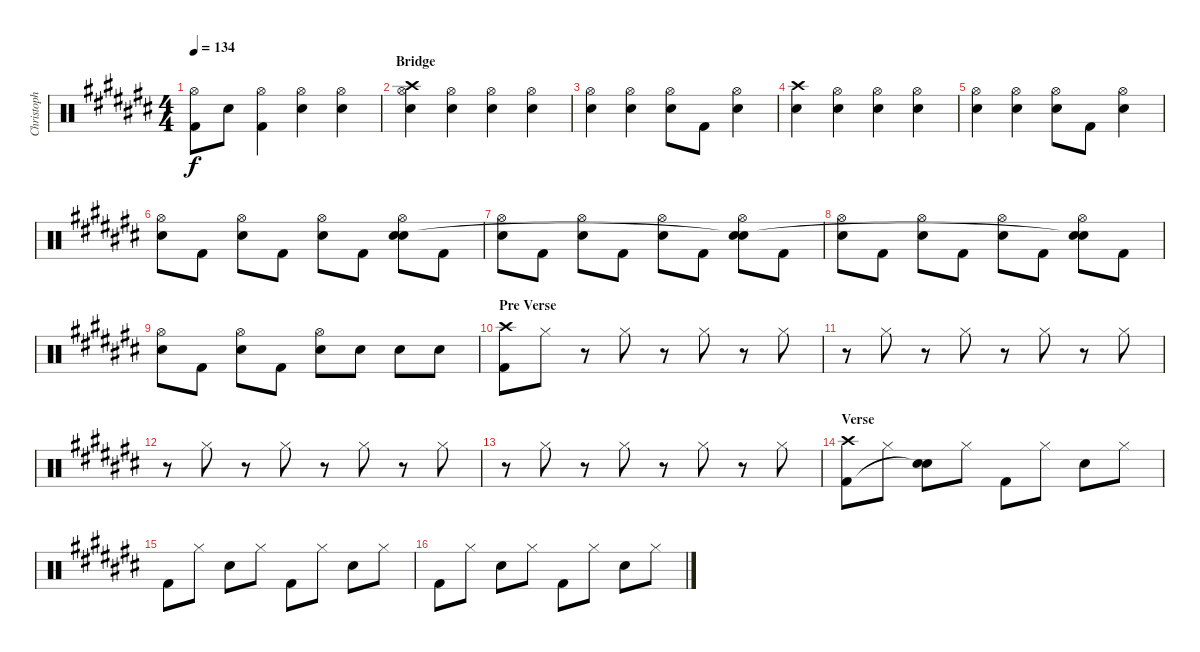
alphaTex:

\track ("Christoph Doom Schneider - Drums" "Christoph ") {instrument percussion}
\staff {score}
\articulation defaults
\ts (4 4)
\tempo 134
\clef neutral
\ks c#
("Hi-Hat (open)" "Kick (hit) 2").8{dy f} "Electric Snare (hit)".8 ("Hi-Hat (open)" "Kick (hit) 2").4 ("Hi-Hat (open)" "Electric Snare (hit)").4 ("Hi-Hat (open)" "Electric Snare (hit)").4 |
\section ("" "Bridge")
("Crash high (hit)" "Hi-Hat (open)" "Electric Snare (hit)").4 ("Hi-Hat (open)" "Electric Snare (hit)").4 ("Hi-Hat (open)" "Electric Snare (hit)").4 ("Hi-Hat (open)" "Electric Snare (hit)").4 |
("Hi-Hat (open)" "Electric Snare (hit)").4 ("Hi-Hat (open)" "Electric Snare (hit)").4 ("Hi-Hat (open)" "Electric Snare (hit)").8 "Kick (hit) 2".8 ("Hi-Hat (open)" "Electric Snare (hit)").4 |
("Crash high (hit)" "Electric Snare (hit)").4 ("Hi-Hat (open)" "Electric Snare (hit)").4 ("Hi-Hat (open)" "Electric Snare (hit)").4 ("Hi-Hat (open)" "Electric Snare (hit)").4 |
("Hi-Hat (open)" "Electric Snare (hit)").4 ("Hi-Hat (open)" "Electric Snare (hit)").4 ("Hi-Hat (open)" "Electric Snare (hit)").8 "Kick (hit) 2"{tr (36 32)}.8 ("Hi-Hat (open)" "Electric Snare (hit)").4 |
("Hi-Hat (open)" "Electric Snare (hit)").8 "Kick (hit) 2".8 ("Hi-Hat (open)" "Electric Snare (hit)").8 "Kick (hit) 2".8 ("Hi-Hat (open)" "Electric Snare (hit)").8 "Kick (hit) 2"{tr (36 16)}.8 ("Hi-Hat (open)" "Electric Snare (hit)" "Snare (hit)").8 "Kick (hit) 2".8 |
("Hi-Hat (open)" "Electric Snare (hit)").8 "Kick (hit) 2".8 ("Hi-Hat (open)" "Electric Snare (hit)").8 "Kick (hit) 2".8 ("Hi-Hat (open)" "Electric Snare (hit)").8 "Kick (hit) 2"{tr (36 16)}.8 ("Hi-Hat (open)" "Electric Snare (hit)" "Snare (hit)"{t}).8 "Kick (hit) 2".8 |
("Hi-Hat (open)" "Electric Snare (hit)").8 "Kick (hit) 2".8 ("Hi-Hat (open)" "Electric Snare (hit)").8 "Kick (hit) 2".8 ("Hi-Hat (open)" "Electric Snare (hit)").8 "Kick (hit) 2"{tr (36 16)}.8 ("Hi-Hat (open)" "Electric Snare (hit)" "Snare (hit)"{t}).8 "Kick (hit) 2".8 |
("Hi-Hat (open)" "Electric Snare (hit)").8 "Kick (hit) 2".8 ("Hi-Hat (open)" "Electric Snare (hit)").8 "Kick (hit) 2".8 ("Hi-Hat (open)" "Electric Snare (hit)").8 "Electric Snare (hit)".8 "Electric Snare (hit)".8 "Electric Snare (hit)".8 |
\section ("" "Pre Verse")
("Crash high (hit)" "Kick (hit) 2").8 "Hi-Hat (closed)".8 r.8 "Hi-Hat (closed)".8 r.8 "Hi-Hat (closed)".8 r.8 "Hi-Hat (closed)".8 |
r.8 "Hi-Hat (closed)".8 r.8 "Hi-Hat (closed)".8 r.8 "Hi-Hat (closed)".8 r.8 "Hi-Hat (closed)".8 |
r.8 "Hi-Hat (closed)".8 r.8 "Hi-Hat (closed)".8 r.8 "Hi-Hat (closed)".8 r.8 "Hi-Hat (closed)".8 |
r.8 "Hi-Hat (closed)".8 r.8 "Hi-Hat (closed)".8 r.8 "Hi-Hat (closed)".8 r.8 "Hi-Hat (closed)".8 |
\section ("" "Verse")
("Crash high (hit)" "Kick (hit) 2").8 "Hi-Hat (closed)".8 ("Electric Snare (hit)" "Snare (hit)"{t}).8 "Hi-Hat (closed)".8 "Kick (hit) 2".8 "Hi-Hat (closed)".8 "Electric Snare (hit)".8 "Hi-Hat (closed)".8 |
"Kick (hit) 2".8 "Hi-Hat (closed)".8 "Electric Snare (hit)".8 "Hi-Hat (closed)".8 "Kick (hit) 2".8 "Hi-Hat (closed)".8 "Electric Snare (hit)".8 "Hi-Hat (closed)".8 |
"Kick (hit) 2".8 "Hi-Hat (closed)".8 "Electric Snare (hit)".8 "Hi-Hat (closed)".8 "Kick (hit) 2".8 "Hi-Hat (closed)".8 "Electric Snare (hit)".8 "Hi-Hat (closed)".8
